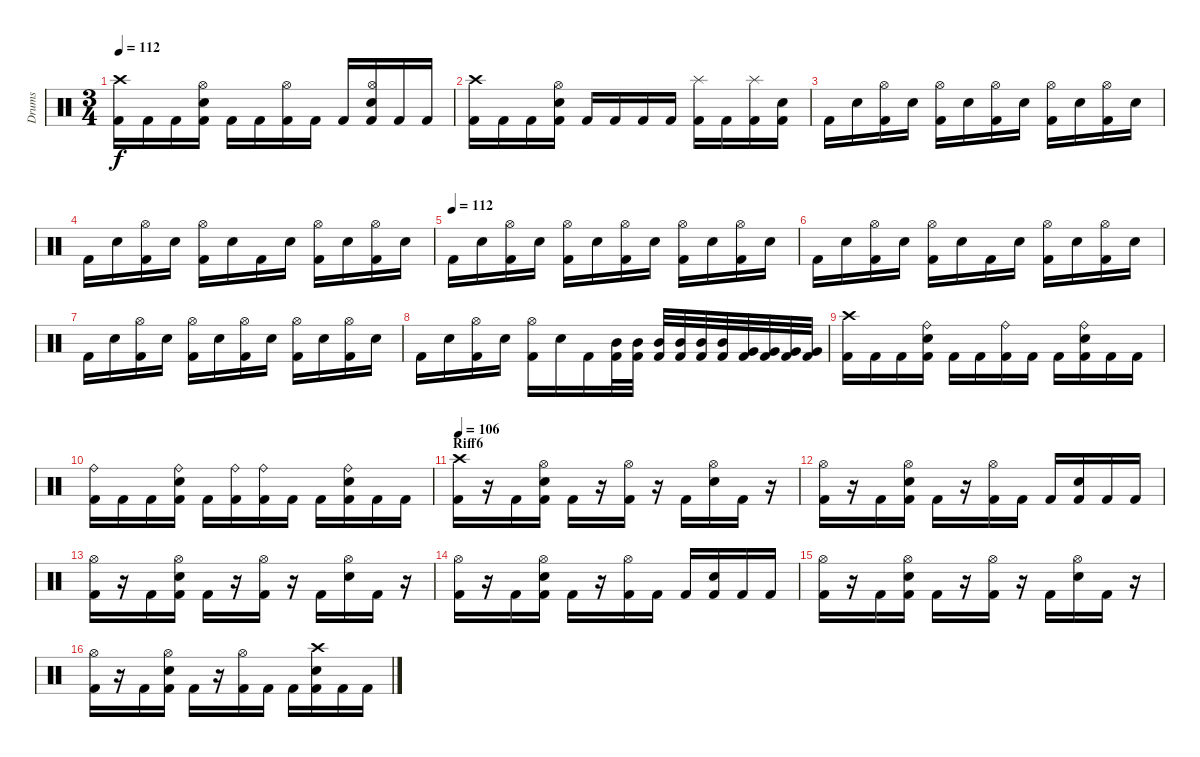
\track ("Drums" "Drums") {instrument percussion}
\staff {score}
\articulation defaults
\ts (3 4)
\tempo 112
\clef neutral
\ks c
("Crash high (hit)" "Kick (hit) 2").16{dy f} "Kick (hit) 2".16 "Kick (hit) 2".16 ("Hi-Hat (open)" "Snare (hit) 2" "Kick (hit) 2").16 "Kick (hit) 2".16 "Kick (hit) 2".16 ("Hi-Hat (open)" "Kick (hit) 2").16 "Kick (hit) 2".16 "Kick (hit) 2".16 ("Hi-Hat (open)" "Snare (hit) 2" "Kick (hit) 2").16 "Kick (hit) 2".16 "Kick (hit) 2".16 |
("Crash high (hit)" "Kick (hit) 2").16 "Kick (hit) 2".16 "Kick (hit) 2".16 ("Hi-Hat (open)" "Snare (hit) 2" "Kick (hit) 2").16 "Kick (hit) 2".16 "Kick (hit) 2".16 "Kick (hit) 2".16 "Kick (hit) 2".16 ("Splash (hit)" "Kick (hit) 2").16 "Kick (hit) 2".16 ("Splash (hit)" "Kick (hit) 2").16 ("Snare (hit) 2" "Kick (hit) 2").16 |
"Kick (hit) 2".16 "Snare (hit) 2".16 ("Hi-Hat (open)" "Kick (hit) 2").16 "Snare (hit) 2".16 ("Hi-Hat (open)" "Kick (hit) 2").16 "Snare (hit) 2".16 ("Hi-Hat (open)" "Kick (hit) 2").16 "Snare (hit) 2".16 ("Hi-Hat (open)" "Kick (hit) 2").16 "Snare (hit) 2".16 ("Hi-Hat (open)" "Kick (hit) 2").16 "Snare (hit) 2".16 |
"Kick (hit) 2".16 "Snare (hit) 2".16 ("Hi-Hat (open)" "Kick (hit) 2").16 "Snare (hit) 2".16 ("Hi-Hat (open)" "Kick (hit) 2").16 "Snare (hit) 2".16 "Kick (hit) 2".16 "Snare (hit) 2".16 ("Hi-Hat (open)" "Kick (hit) 2").16 "Snare (hit) 2".16 ("Hi-Hat (open)" "Kick (hit) 2").16 "Snare (hit) 2".16 |
\tempo (112)
"Kick (hit) 2".16 "Snare (hit) 2".16 ("Hi-Hat (open)" "Kick (hit) 2").16 "Snare (hit) 2".16 ("Hi-Hat (open)" "Kick (hit) 2").16 "Snare (hit) 2".16 ("Hi-Hat (open)" "Kick (hit) 2").16 "Snare (hit) 2".16 ("Hi-Hat (open)" "Kick (hit) 2").16 "Snare (hit) 2".16 ("Hi-Hat (open)" "Kick (hit) 2").16 "Snare (hit) 2".16 |
"Kick (hit) 2".16 "Snare (hit) 2".16 ("Hi-Hat (open)" "Kick (hit) 2").16 "Snare (hit) 2".16 ("Hi-Hat (open)" "Kick (hit) 2").16 "Snare (hit) 2".16 "Kick (hit) 2".16 "Snare (hit) 2".16 ("Hi-Hat (open)" "Kick (hit) 2").16 "Snare (hit) 2".16 ("Hi-Hat (open)" "Kick (hit) 2").16 "Snare (hit) 2".16 |
"Kick (hit) 2".16 "Snare (hit) 2".16 ("Hi-Hat (open)" "Kick (hit) 2").16 "Snare (hit) 2".16 ("Hi-Hat (open)" "Kick (hit) 2").16 "Snare (hit) 2".16 ("Hi-Hat (open)" "Kick (hit) 2").16 "Snare (hit) 2".16 ("Hi-Hat (open)" "Kick (hit) 2").16 "Snare (hit) 2".16 ("Hi-Hat (open)" "Kick (hit) 2").16 "Snare (hit) 2".16 |
"Kick (hit) 2".16 "Snare (hit) 2".16 ("Hi-Hat (open)" "Kick (hit) 2").16 "Snare (hit) 2".16 ("Hi-Hat (open)" "Kick (hit) 2").16 "Snare (hit) 2".16 "Kick (hit) 2".16 ("Mid Tom (hit)" "Kick (hit) 2").32 ("Mid Tom (hit)" "Kick (hit) 2").32 ("Mid Tom (hit)" "Kick (hit) 2").32 ("Mid Tom (hit)" "Kick (hit) 2").32 ("Mid Tom (hit)" "Kick (hit) 2").32 ("Mid Tom (hit)" "Kick (hit) 2").32 ("Very Low Tom (hit)" "Kick (hit) 2").32 ("Very Low Tom (hit)" "Kick (hit) 2").32 ("Very Low Tom (hit)" "Kick (hit) 2").32 ("Very Low Tom (hit)" "Kick (hit) 2").32 |
("Crash high (hit)" "Kick (hit) 2").16 "Kick (hit) 2".16 "Kick (hit) 2".16 ("Ride (bell)" "Snare (hit) 2" "Kick (hit) 2").16 "Kick (hit) 2".16 "Kick (hit) 2".16 ("Ride (bell)" "Kick (hit) 2").16 "Kick (hit) 2".16 "Kick (hit) 2".16 ("Ride (bell)" "Snare (hit) 2" "Kick (hit) 2").16 "Kick (hit) 2".16 "Kick (hit) 2".16 |
("Ride (bell)" "Kick (hit) 2").16 "Kick (hit) 2".16 "Kick (hit) 2".16 ("Ride (bell)" "Snare (hit) 2" "Kick (hit) 2").16 "Kick (hit) 2".16 ("Ride (bell)" "Kick (hit) 2").16 ("Ride (bell)" "Kick (hit) 2").16 "Kick (hit) 2".16 "Kick (hit) 2".16 ("Ride (bell)" "Snare (hit) 2" "Kick (hit) 2").16 "Kick (hit) 2".16 "Kick (hit) 2".16 |
\section ("" "Riff6")
\tempo 106
("Crash high (hit)" "Kick (hit) 2").16 r.16 "Kick (hit) 2".16 ("Hi-Hat (open)" "Snare (hit) 2" "Kick (hit) 2").16 "Kick (hit) 2".16 r.16 ("Hi-Hat (open)" "Kick (hit) 2").16 r.16 "Kick (hit) 2".16 ("Hi-Hat (open)" "Snare (hit) 2").16 "Kick (hit) 2".16 r.16 |
("Hi-Hat (open)" "Kick (hit) 2").16 r.16 "Kick (hit) 2".16 ("Hi-Hat (open)" "Snare (hit) 2" "Kick (hit) 2").16 "Kick (hit) 2".16 r.16 ("Hi-Hat (open)" "Kick (hit) 2").16 "Kick (hit) 2".16 "Kick (hit) 2".16 ("Snare (hit) 2" "Kick (hit) 2").16 "Kick (hit) 2".16 "Kick (hit) 2".16 |
("Hi-Hat (open)" "Kick (hit) 2").16 r.16 "Kick (hit) 2".16 ("Hi-Hat (open)" "Snare (hit) 2" "Kick (hit) 2").16 "Kick (hit) 2".16 r.16 ("Hi-Hat (open)" "Kick (hit) 2").16 r.16 "Kick (hit) 2".16 ("Hi-Hat (open)" "Snare (hit) 2").16 "Kick (hit) 2".16 r.16 |
("Hi-Hat (open)" "Kick (hit) 2").16 r.16 "Kick (hit) 2".16 ("Hi-Hat (open)" "Snare (hit) 2" "Kick (hit) 2").16 "Kick (hit) 2".16 r.16 ("Hi-Hat (open)" "Kick (hit) 2").16 "Kick (hit) 2".16 "Kick (hit) 2".16 ("Snare (hit) 2" "Kick (hit) 2").16 "Kick (hit) 2".16 "Kick (hit) 2".16 |
("Hi-Hat (open)" "Kick (hit) 2").16 r.16 "Kick (hit) 2".16 ("Hi-Hat (open)" "Snare (hit) 2" "Kick (hit) 2").16 "Kick (hit) 2".16 r.16 ("Hi-Hat (open)" "Kick (hit) 2").16 r.16 "Kick (hit) 2".16 ("Hi-Hat (open)" "Snare (hit) 2").16 "Kick (hit) 2".16 r.16 |
("Hi-Hat (open)" "Kick (hit) 2").16 r.16 "Kick (hit) 2".16 ("Hi-Hat (open)" "Snare (hit) 2" "Kick (hit) 2").16 "Kick (hit) 2".16 r.16 ("Hi-Hat (open)" "Kick (hit) 2").16 "Kick (hit) 2".16 "Kick (hit) 2".16 ("Crash high (hit)" "Snare (hit) 2" "Kick (hit) 2").16 "Kick (hit) 2".16 "Kick (hit) 2".16
